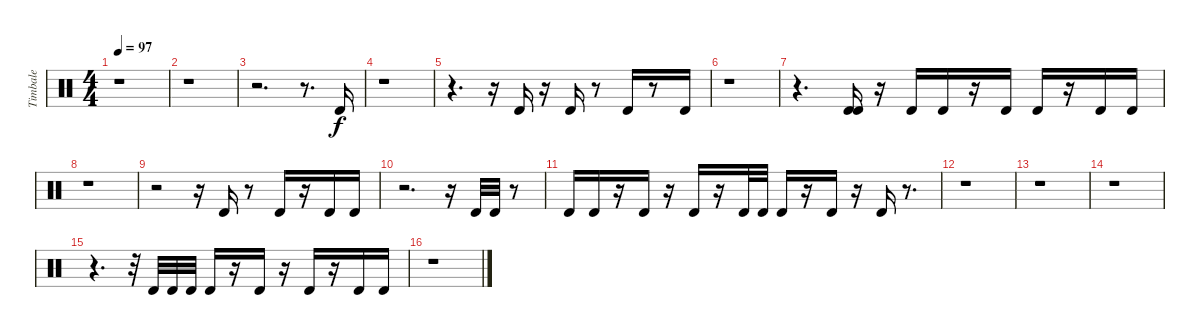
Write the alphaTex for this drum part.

\track ("Timbale" "Timbale") {instrument percussion}
\staff {score}
\articulation defaults
\ts (4 4)
\tempo 97
\clef neutral
\ks c
r.1{dy f} |
r.1 |
r.2{d} r.8{d} "Timbale high (hit)".16 |
r.1 |
r.4{d} r.16 "Timbale high (hit)".16 r.16 "Timbale high (hit)".16 r.8 "Timbale high (hit)".16 r.8 "Timbale high (hit)".16 |
r.1 |
r.4{d} ("Timbale high (hit)" "Timbale high (hit)").16 r.16 "Timbale high (hit)".16 "Timbale high (hit)".16 r.16 "Timbale high (hit)".16 "Timbale high (hit)".16 r.16 "Timbale high (hit)".16 "Timbale high (hit)".16 |
r.1 |
r.2 r.16 "Timbale high (hit)".16 r.8 "Timbale high (hit)".16 r.16 "Timbale high (hit)".16 "Timbale high (hit)".16 |
r.2{d} r.16 "Timbale high (hit)".32 "Timbale high (hit)".32 r.8 |
"Timbale high (hit)".16 "Timbale high (hit)".16 r.16 "Timbale high (hit)".16 r.16 "Timbale high (hit)".16 r.16 "Timbale high (hit)".32 "Timbale high (hit)".32 "Timbale high (hit)".16 r.16 "Timbale high (hit)".16 r.16 "Timbale high (hit)".16 r.8{d} |
r.1 |
r.1 |
r.1 |
r.4{d} r.32 "Timbale high (hit)".32 "Timbale high (hit)".32 "Timbale high (hit)".32 "Timbale high (hit)".16 r.16 "Timbale high (hit)".16 r.16 "Timbale high (hit)".16 r.16 "Timbale high (hit)".16 "Timbale high (hit)".16 |
r.1
